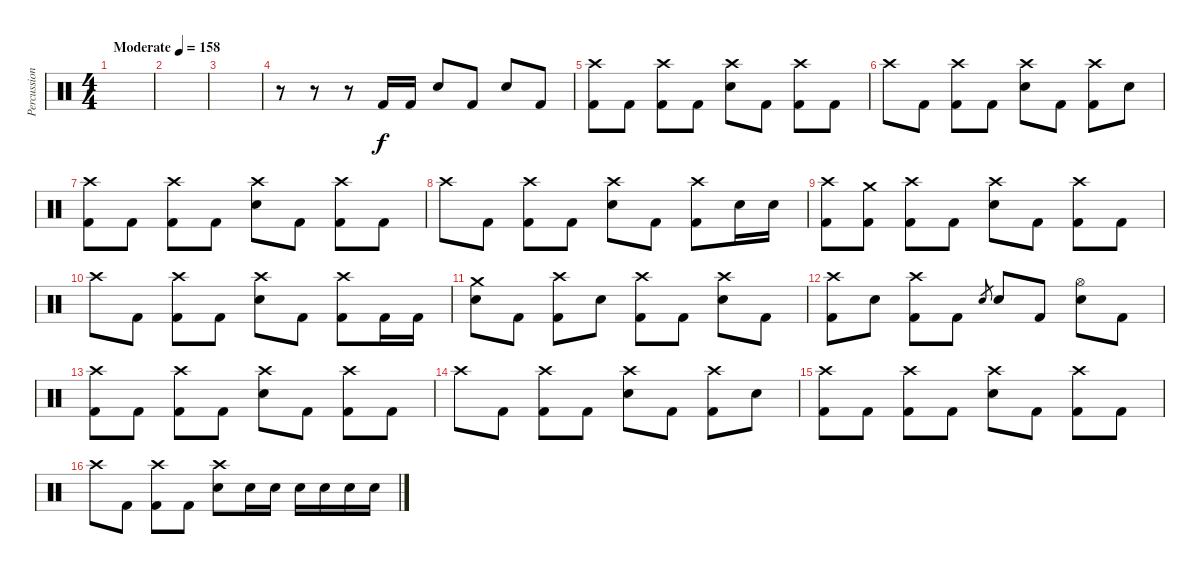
\track ("Percussion" "Percussion") {instrument percussion}
\staff {score}
\articulation defaults
\ts (4 4)
\tempo (158 "Moderate")
\clef neutral
\ks c
|
|
|
r.8 r.8 r.8 "Kick (hit) 2".16 "Kick (hit) 2".16 "Snare (hit) 2".8 "Kick (hit) 2".8 "Snare (hit) 2".8 "Kick (hit) 2".8 |
("Crash high (hit)" "Kick (hit) 2").8 "Kick (hit) 2".8 ("Crash high (hit)" "Kick (hit) 2").8 "Kick (hit) 2".8 ("Crash high (hit)" "Snare (hit) 2").8 "Kick (hit) 2".8 ("Crash high (hit)" "Kick (hit) 2").8 "Kick (hit) 2".8 |
"Crash high (hit)".8 "Kick (hit) 2".8 ("Crash high (hit)" "Kick (hit) 2").8 "Kick (hit) 2".8 ("Crash high (hit)" "Snare (hit) 2").8 "Kick (hit) 2".8 ("Crash high (hit)" "Kick (hit) 2").8 "Snare (hit) 2".8 |
("Crash high (hit)" "Kick (hit) 2").8 "Kick (hit) 2".8 ("Crash high (hit)" "Kick (hit) 2").8 "Kick (hit) 2".8 ("Crash high (hit)" "Snare (hit) 2").8 "Kick (hit) 2".8 ("Crash high (hit)" "Kick (hit) 2").8 "Kick (hit) 2".8 |
"Crash high (hit)".8 "Kick (hit) 2".8 ("Crash high (hit)" "Kick (hit) 2").8 "Kick (hit) 2".8 ("Crash high (hit)" "Snare (hit) 2").8 "Kick (hit) 2".8 ("Crash high (hit)" "Kick (hit) 2").8 "Snare (hit) 2".16 "Snare (hit) 2".16 |
("Crash high (hit)" "Kick (hit) 2").8 ("Crash medium (hit)" "Kick (hit) 2").8 ("Crash high (hit)" "Kick (hit) 2").8 "Kick (hit) 2".8 ("Crash high (hit)" "Snare (hit) 2").8 "Kick (hit) 2".8 ("Crash high (hit)" "Kick (hit) 2").8 "Kick (hit) 2".8 |
"Crash high (hit)".8 "Kick (hit) 2".8 ("Crash high (hit)" "Kick (hit) 2").8 "Kick (hit) 2".8 ("Crash high (hit)" "Snare (hit) 2").8 "Kick (hit) 2".8 ("Crash high (hit)" "Kick (hit) 2").8 "Kick (hit) 2".16 "Kick (hit) 2".16 |
("Crash medium (hit)" "Snare (hit) 2").8 "Kick (hit) 2".8 ("Crash high (hit)" "Kick (hit) 2").8 "Snare (hit) 2".8 ("Crash high (hit)" "Kick (hit) 2").8 "Kick (hit) 2".8 ("Crash high (hit)" "Snare (hit) 2").8 "Kick (hit) 2".8 |
("Crash high (hit)" "Kick (hit) 2").8 "Snare (hit) 2".8 ("Crash high (hit)" "Kick (hit) 2").8 "Kick (hit) 2".8 "Snare (hit) 2".8{gr} "Snare (hit) 2".8 "Kick (hit) 2".8 ("Hi-Hat (open)" "Snare (hit) 2").8 "Kick (hit) 2".8 |
("Crash high (hit)" "Kick (hit) 2").8 "Kick (hit) 2".8 ("Crash high (hit)" "Kick (hit) 2").8 "Kick (hit) 2".8 ("Crash high (hit)" "Snare (hit) 2").8 "Kick (hit) 2".8 ("Crash high (hit)" "Kick (hit) 2").8 "Kick (hit) 2".8 |
"Crash high (hit)".8 "Kick (hit) 2".8 ("Crash high (hit)" "Kick (hit) 2").8 "Kick (hit) 2".8 ("Crash high (hit)" "Snare (hit) 2").8 "Kick (hit) 2".8 ("Crash high (hit)" "Kick (hit) 2").8 "Snare (hit) 2".8 |
("Crash high (hit)" "Kick (hit) 2").8 "Kick (hit) 2".8 ("Crash high (hit)" "Kick (hit) 2").8 "Kick (hit) 2".8 ("Crash high (hit)" "Snare (hit) 2").8 "Kick (hit) 2".8 ("Crash high (hit)" "Kick (hit) 2").8 "Kick (hit) 2".8 |
"Crash high (hit)".8 "Kick (hit) 2".8 ("Crash high (hit)" "Kick (hit) 2").8 "Kick (hit) 2".8 ("Crash high (hit)" "Snare (hit) 2").8 "Snare (hit) 2".16 "Snare (hit) 2".16 "Snare (hit) 2".16 "Snare (hit) 2".16 "Snare (hit) 2".16 "Snare (hit) 2".16
